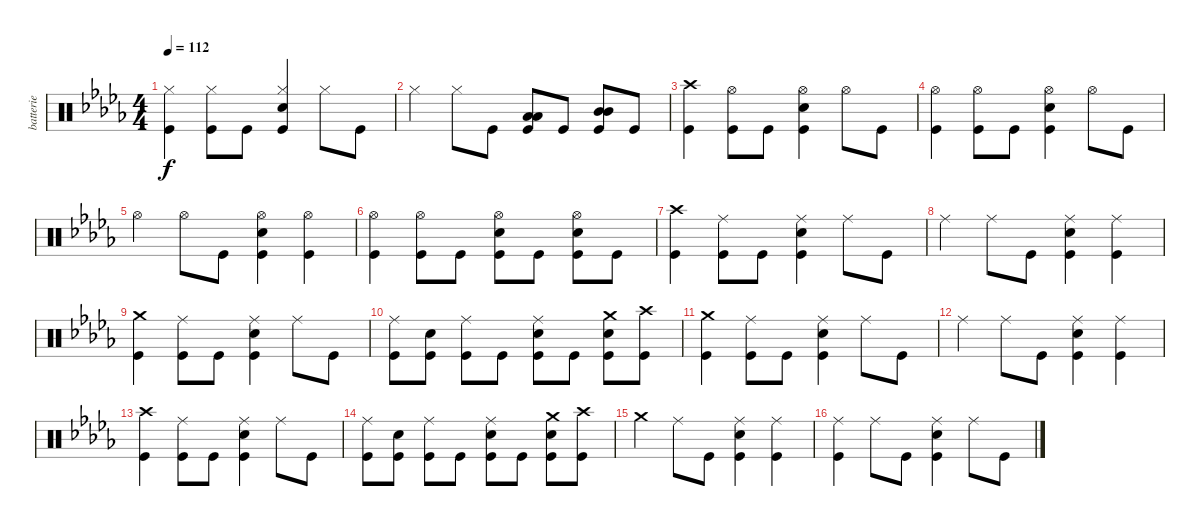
\track ("batterie" "batterie") {instrument percussion}
\staff {score}
\articulation defaults
\ts (4 4)
\tempo 112
\clef neutral
\ks bbminor
("Kick (hit)" "Hi-Hat (closed)").4{dy f} ("Kick (hit)" "Hi-Hat (closed)").8 "Kick (hit)".8 ("Kick (hit)" "Snare (hit) 2" "Hi-Hat (closed)").4 "Hi-Hat (closed)".8 "Kick (hit)".8 |
"Hi-Hat (closed)".4 "Hi-Hat (closed)".8 "Kick (hit)".8 ("Kick (hit)" "Low Floor Tom (hit)" "Low Floor Tom (hit)").8 "Kick (hit)".8 ("Kick (hit)" "Mid Tom (hit)" "Mid Tom (hit)").8 "Kick (hit)".8 |
("Kick (hit)" "Crash high (hit)").4 ("Kick (hit)" "Hi-Hat (open)").8 "Kick (hit)".8 ("Kick (hit)" "Snare (hit) 2" "Hi-Hat (open)").4 "Hi-Hat (open)".8 "Kick (hit)".8 |
("Kick (hit)" "Hi-Hat (open)").4 ("Kick (hit)" "Hi-Hat (open)").8 "Kick (hit)".8 ("Kick (hit)" "Snare (hit) 2" "Hi-Hat (open)").4 "Hi-Hat (open)".8 "Kick (hit)".8 |
"Hi-Hat (open)".4 "Hi-Hat (open)".8 "Kick (hit)".8 ("Kick (hit)" "Snare (hit) 2" "Hi-Hat (open)").4 ("Kick (hit)" "Hi-Hat (open)").4 |
("Kick (hit)" "Hi-Hat (open)").4 ("Kick (hit)" "Hi-Hat (open)").8 "Kick (hit)".8 ("Kick (hit)" "Snare (hit) 2" "Hi-Hat (open)").8 "Kick (hit)".8 ("Kick (hit)" "Snare (hit) 2" "Hi-Hat (open)").8 "Kick (hit)".8 |
("Kick (hit)" "Crash high (hit)").4 ("Kick (hit)" "Ride (middle)").8 "Kick (hit)".8 ("Kick (hit)" "Snare (hit) 2" "Ride (middle)").4 "Ride (middle)".8 "Kick (hit)".8 |
"Ride (middle)".4 "Ride (middle)".8 "Kick (hit)".8 ("Kick (hit)" "Snare (hit) 2" "Ride (middle)").4 ("Kick (hit)" "Ride (middle)").4 |
("Kick (hit)" "Crash medium (hit)").4 ("Kick (hit)" "Ride (middle)").8 "Kick (hit)".8 ("Kick (hit)" "Snare (hit) 2" "Ride (middle)").4 "Ride (middle)".8 "Kick (hit)".8 |
("Kick (hit)" "Ride (middle)").8 ("Kick (hit)" "Snare (hit) 2").8 ("Kick (hit)" "Ride (middle)").8 "Kick (hit)".8 ("Kick (hit)" "Snare (hit) 2" "Ride (middle)").8 "Kick (hit)".8 ("Kick (hit)" "Snare (hit) 2" "Crash medium (hit)").8 ("Kick (hit)" "Crash high (hit)").8 |
("Kick (hit)" "Crash medium (hit)").4 ("Kick (hit)" "Ride (middle)").8 "Kick (hit)".8 ("Kick (hit)" "Snare (hit) 2" "Ride (middle)").4 "Ride (middle)".8 "Kick (hit)".8 |
"Ride (middle)".4 "Ride (middle)".8 "Kick (hit)".8 ("Kick (hit)" "Snare (hit) 2" "Ride (middle)").4 ("Kick (hit)" "Ride (middle)").4 |
("Kick (hit)" "Crash high (hit)").4 ("Kick (hit)" "Ride (middle)").8 "Kick (hit)".8 ("Kick (hit)" "Snare (hit) 2" "Ride (middle)").4 "Ride (middle)".8 "Kick (hit)".8 |
("Kick (hit)" "Ride (middle)").8 ("Kick (hit)" "Snare (hit) 2").8 ("Kick (hit)" "Ride (middle)").8 "Kick (hit)".8 ("Kick (hit)" "Snare (hit) 2" "Ride (middle)").8 "Kick (hit)".8 ("Kick (hit)" "Snare (hit) 2" "Crash medium (hit)").8 ("Kick (hit)" "Crash high (hit)").8 |
"Crash medium (hit)".4 "Ride (middle)".8 "Kick (hit)".8 ("Kick (hit)" "Snare (hit) 2" "Ride (middle)").4 ("Kick (hit)" "Ride (middle)").4 |
("Kick (hit)" "Ride (middle)").4 "Ride (middle)".8 "Kick (hit)".8 ("Kick (hit)" "Snare (hit) 2" "Ride (middle)").4 "Ride (middle)".8 "Kick (hit)".8
